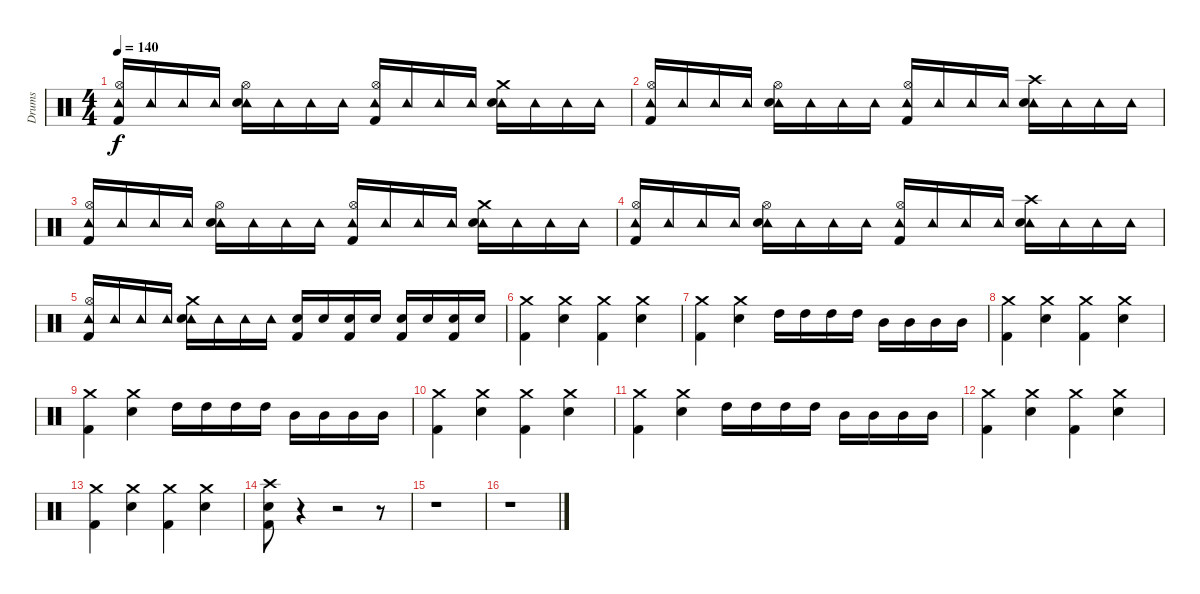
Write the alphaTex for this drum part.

\track ("Drums" "Drums") {instrument percussion}
\staff {score}
\articulation defaults
\ts (4 4)
\tempo 140
\clef neutral
\ks c
("Tambourine (hit)" "Hi-Hat (open)" "Kick (hit) 2").16{dy f} "Tambourine (hit)".16 "Tambourine (hit)".16 "Tambourine (hit)".16 ("Tambourine (hit)" "Hi-Hat (open)" "Snare (hit) 2").16 "Tambourine (hit)".16 "Tambourine (hit)".16 "Tambourine (hit)".16 ("Tambourine (hit)" "Hi-Hat (open)" "Kick (hit) 2").16 "Tambourine (hit)".16 "Tambourine (hit)".16 "Tambourine (hit)".16 ("Tambourine (hit)" "Crash medium (hit)" "Snare (hit) 2").16 "Tambourine (hit)".16 "Tambourine (hit)".16 "Tambourine (hit)".16 |
("Tambourine (hit)" "Hi-Hat (open)" "Kick (hit) 2").16 "Tambourine (hit)".16 "Tambourine (hit)".16 "Tambourine (hit)".16 ("Tambourine (hit)" "Hi-Hat (open)" "Snare (hit) 2").16 "Tambourine (hit)".16 "Tambourine (hit)".16 "Tambourine (hit)".16 ("Tambourine (hit)" "Hi-Hat (open)" "Kick (hit) 2").16 "Tambourine (hit)".16 "Tambourine (hit)".16 "Tambourine (hit)".16 ("Tambourine (hit)" "Crash high (hit)" "Snare (hit) 2").16 "Tambourine (hit)".16 "Tambourine (hit)".16 "Tambourine (hit)".16 |
("Tambourine (hit)" "Hi-Hat (open)" "Kick (hit) 2").16 "Tambourine (hit)".16 "Tambourine (hit)".16 "Tambourine (hit)".16 ("Tambourine (hit)" "Hi-Hat (open)" "Snare (hit) 2").16 "Tambourine (hit)".16 "Tambourine (hit)".16 "Tambourine (hit)".16 ("Tambourine (hit)" "Hi-Hat (open)" "Kick (hit) 2").16 "Tambourine (hit)".16 "Tambourine (hit)".16 "Tambourine (hit)".16 ("Tambourine (hit)" "Crash medium (hit)" "Snare (hit) 2").16 "Tambourine (hit)".16 "Tambourine (hit)".16 "Tambourine (hit)".16 |
("Tambourine (hit)" "Hi-Hat (open)" "Kick (hit) 2").16 "Tambourine (hit)".16 "Tambourine (hit)".16 "Tambourine (hit)".16 ("Tambourine (hit)" "Hi-Hat (open)" "Snare (hit) 2").16 "Tambourine (hit)".16 "Tambourine (hit)".16 "Tambourine (hit)".16 ("Tambourine (hit)" "Hi-Hat (open)" "Kick (hit) 2").16 "Tambourine (hit)".16 "Tambourine (hit)".16 "Tambourine (hit)".16 ("Tambourine (hit)" "Crash high (hit)" "Snare (hit) 2").16 "Tambourine (hit)".16 "Tambourine (hit)".16 "Tambourine (hit)".16 |
("Tambourine (hit)" "Hi-Hat (open)" "Kick (hit) 2").16 "Tambourine (hit)".16 "Tambourine (hit)".16 "Tambourine (hit)".16 ("Tambourine (hit)" "Crash medium (hit)" "Snare (hit) 2").16 "Tambourine (hit)".16 "Tambourine (hit)".16 "Tambourine (hit)".16 ("Snare (hit) 2" "Kick (hit) 2").16 "Snare (hit) 2".16 ("Snare (hit) 2" "Kick (hit) 2").16 "Snare (hit) 2".16 ("Snare (hit) 2" "Kick (hit) 2").16 "Snare (hit) 2".16 ("Snare (hit) 2" "Kick (hit) 2").16 "Snare (hit) 2".16 |
("Crash medium (hit)" "Kick (hit) 2").4 ("Crash medium (hit)" "Snare (hit) 2").4 ("Crash medium (hit)" "Kick (hit) 2").4 ("Crash medium (hit)" "Snare (hit) 2").4 |
("Crash medium (hit)" "Kick (hit) 2").4 ("Crash medium (hit)" "Snare (hit) 2").4 "High Tom (hit)".16 "High Tom (hit)".16 "High Tom (hit)".16 "High Tom (hit)".16 "Mid Tom (hit)".16 "Mid Tom (hit)".16 "Mid Tom (hit)".16 "Mid Tom (hit)".16 |
("Crash medium (hit)" "Kick (hit) 2").4 ("Crash medium (hit)" "Snare (hit) 2").4 ("Crash medium (hit)" "Kick (hit) 2").4 ("Crash medium (hit)" "Snare (hit) 2").4 |
("Crash medium (hit)" "Kick (hit) 2").4 ("Crash medium (hit)" "Snare (hit) 2").4 "High Tom (hit)".16 "High Tom (hit)".16 "High Tom (hit)".16 "High Tom (hit)".16 "Mid Tom (hit)".16 "Mid Tom (hit)".16 "Mid Tom (hit)".16 "Mid Tom (hit)".16 |
("Crash medium (hit)" "Kick (hit) 2").4 ("Crash medium (hit)" "Snare (hit) 2").4 ("Crash medium (hit)" "Kick (hit) 2").4 ("Crash medium (hit)" "Snare (hit) 2").4 |
("Crash medium (hit)" "Kick (hit) 2").4 ("Crash medium (hit)" "Snare (hit) 2").4 "High Tom (hit)".16 "High Tom (hit)".16 "High Tom (hit)".16 "High Tom (hit)".16 "Mid Tom (hit)".16 "Mid Tom (hit)".16 "Mid Tom (hit)".16 "Mid Tom (hit)".16 |
("Crash medium (hit)" "Kick (hit) 2").4 ("Crash medium (hit)" "Snare (hit) 2").4 ("Crash medium (hit)" "Kick (hit) 2").4 ("Crash medium (hit)" "Snare (hit) 2").4 |
("Crash medium (hit)" "Kick (hit) 2").4 ("Crash medium (hit)" "Snare (hit) 2").4 ("Crash medium (hit)" "Kick (hit) 2").4 ("Crash medium (hit)" "Snare (hit) 2").4 |
("Crash high (hit)" "Snare (hit) 2" "Kick (hit) 2").8 r.4 r.2 r.8 |
r.1 |
r.1
